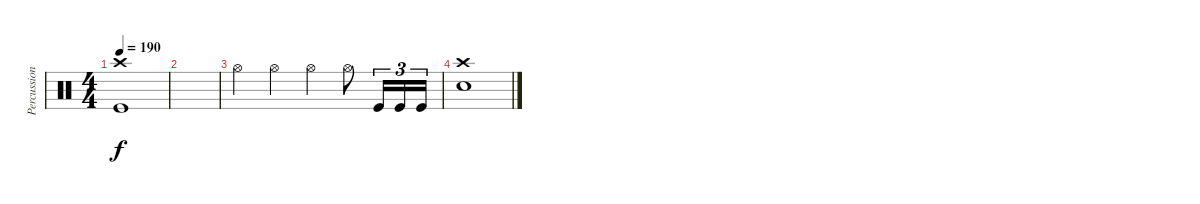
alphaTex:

\track ("Percussion" "Percussion") {instrument percussion}
\staff {score}
\articulation defaults
\ts (4 4)
\tempo 190
\clef neutral
\ks c
("Crash high (hit)" "Kick (hit)").1{dy f} |
|
"Hi-Hat (open)".4 "Hi-Hat (open)".4 "Hi-Hat (open)".4 "Hi-Hat (open)".8 "Kick (hit)".16{tu (3 2)} "Kick (hit)".16{tu (3 2)} "Kick (hit)".16{tu (3 2)} |
("Crash high (hit)" "Snare (hit) 2").1
